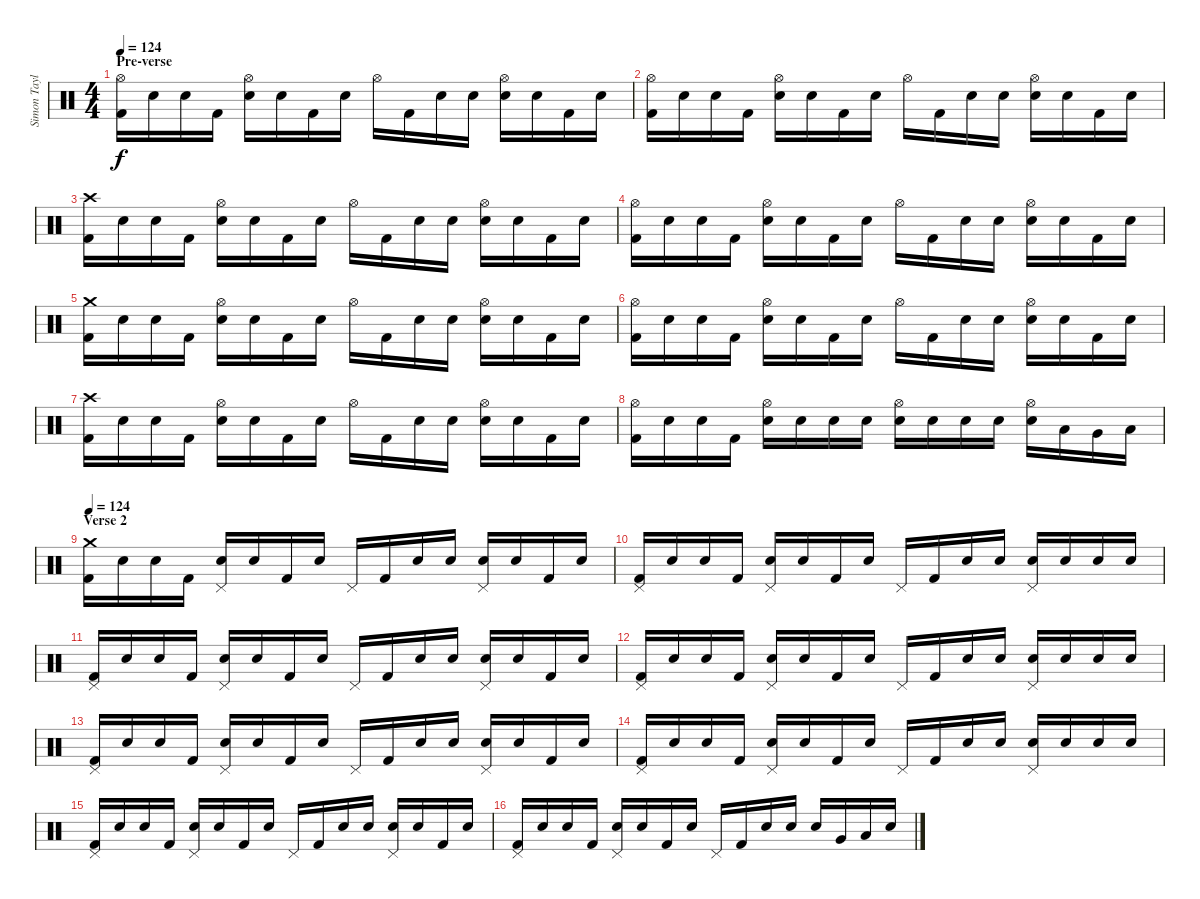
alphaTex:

\track ("Simon Taylor - Drums" "Simon Tayl") {instrument percussion}
\staff {score}
\articulation defaults
\ts (4 4)
\section ("" "Pre-verse")
\tempo 124
\clef neutral
\ks c
("Hi-Hat (open)" "Kick (hit) 2").16{dy f volume 16 balance 8} "Snare (hit)".16 "Snare (hit)".16 "Kick (hit) 2".16 ("Hi-Hat (open)" "Electric Snare (hit)").16 "Snare (hit)".16 "Kick (hit) 2".16 "Snare (hit)".16 "Hi-Hat (open)".16 "Kick (hit) 2".16 "Snare (hit)".16 "Snare (hit)".16 ("Hi-Hat (open)" "Electric Snare (hit)").16 "Snare (hit)".16 "Kick (hit) 2".16 "Snare (hit)".16 |
("Hi-Hat (open)" "Kick (hit) 2").16 "Snare (hit)".16 "Snare (hit)".16 "Kick (hit) 2".16 ("Hi-Hat (open)" "Electric Snare (hit)").16 "Snare (hit)".16 "Kick (hit) 2".16 "Snare (hit)".16 "Hi-Hat (open)".16 "Kick (hit) 2".16 "Snare (hit)".16 "Snare (hit)".16 ("Hi-Hat (open)" "Electric Snare (hit)").16 "Snare (hit)".16 "Kick (hit) 2".16 "Snare (hit)".16 |
("Crash high (hit)" "Kick (hit) 2").16 "Snare (hit)".16 "Snare (hit)".16 "Kick (hit) 2".16 ("Hi-Hat (open)" "Electric Snare (hit)").16 "Snare (hit)".16 "Kick (hit) 2".16 "Snare (hit)".16 "Hi-Hat (open)".16 "Kick (hit) 2".16 "Snare (hit)".16 "Snare (hit)".16 ("Hi-Hat (open)" "Electric Snare (hit)").16 "Snare (hit)".16 "Kick (hit) 2".16 "Snare (hit)".16 |
("Hi-Hat (open)" "Kick (hit) 2").16 "Snare (hit)".16 "Snare (hit)".16 "Kick (hit) 2".16 ("Hi-Hat (open)" "Electric Snare (hit)").16 "Snare (hit)".16 "Kick (hit) 2".16 "Snare (hit)".16 "Hi-Hat (open)".16 "Kick (hit) 2".16 "Snare (hit)".16 "Snare (hit)".16 ("Hi-Hat (open)" "Electric Snare (hit)").16 "Snare (hit)".16 "Kick (hit) 2".16 "Snare (hit)".16 |
("Crash medium (hit)" "Kick (hit) 2").16 "Snare (hit)".16 "Snare (hit)".16 "Kick (hit) 2".16 ("Hi-Hat (open)" "Electric Snare (hit)").16 "Snare (hit)".16 "Kick (hit) 2".16 "Snare (hit)".16 "Hi-Hat (open)".16 "Kick (hit) 2".16 "Snare (hit)".16 "Snare (hit)".16 ("Hi-Hat (open)" "Electric Snare (hit)").16 "Snare (hit)".16 "Kick (hit) 2".16 "Snare (hit)".16 |
("Hi-Hat (open)" "Kick (hit) 2").16 "Snare (hit)".16 "Snare (hit)".16 "Kick (hit) 2".16 ("Hi-Hat (open)" "Electric Snare (hit)").16 "Snare (hit)".16 "Kick (hit) 2".16 "Snare (hit)".16 "Hi-Hat (open)".16 "Kick (hit) 2".16 "Snare (hit)".16 "Snare (hit)".16 ("Hi-Hat (open)" "Electric Snare (hit)").16 "Snare (hit)".16 "Kick (hit) 2".16 "Snare (hit)".16 |
("Crash high (hit)" "Kick (hit) 2").16 "Snare (hit)".16 "Snare (hit)".16 "Kick (hit) 2".16 ("Hi-Hat (open)" "Electric Snare (hit)").16 "Snare (hit)".16 "Kick (hit) 2".16 "Snare (hit)".16 "Hi-Hat (open)".16 "Kick (hit) 2".16 "Snare (hit)".16 "Snare (hit)".16 ("Hi-Hat (open)" "Electric Snare (hit)").16 "Snare (hit)".16 "Kick (hit) 2".16 "Snare (hit)".16 |
("Hi-Hat (open)" "Kick (hit) 2").16 "Snare (hit)".16 "Snare (hit)".16 "Kick (hit) 2".16 ("Hi-Hat (open)" "Electric Snare (hit)").16 "Snare (hit)".16 "Snare (hit)".16 "Snare (hit)".16 ("Hi-Hat (open)" "Electric Snare (hit)").16 "Snare (hit)".16 "Electric Snare (hit)".16 "Snare (hit)".16 ("Hi-Hat (open)" "Electric Snare (hit)").16 "Low Tom (hit)".16 "Very Low Tom (hit)".16 "Low Floor Tom (hit)".16 |
\section ("" "Verse 2")
\tempo 124
("Crash medium (hit)" "Kick (hit) 2").16{volume 16 balance 8} "Snare (hit)".16 "Snare (hit)".16 "Kick (hit) 2".16 ("Pedal Hi-Hat (hit)" "Electric Snare (hit)").16 "Snare (hit)".16 "Kick (hit) 2".16 "Snare (hit)".16 "Pedal Hi-Hat (hit)".16 "Kick (hit) 2".16 "Snare (hit)".16 "Snare (hit)".16 ("Pedal Hi-Hat (hit)" "Electric Snare (hit)").16 "Snare (hit)".16 "Kick (hit) 2".16 "Snare (hit)".16 |
("Pedal Hi-Hat (hit)" "Kick (hit) 2").16 "Snare (hit)".16 "Snare (hit)".16 "Kick (hit) 2".16 ("Pedal Hi-Hat (hit)" "Electric Snare (hit)").16 "Snare (hit)".16 "Kick (hit) 2".16 "Snare (hit)".16 "Pedal Hi-Hat (hit)".16 "Kick (hit) 2".16 "Snare (hit)".16 "Snare (hit)".16 ("Pedal Hi-Hat (hit)" "Electric Snare (hit)").16 "Electric Snare (hit)".16 "Electric Snare (hit)".16 "Snare (hit)".16 |
("Pedal Hi-Hat (hit)" "Kick (hit) 2").16 "Snare (hit)".16 "Snare (hit)".16 "Kick (hit) 2".16 ("Pedal Hi-Hat (hit)" "Electric Snare (hit)").16 "Snare (hit)".16 "Kick (hit) 2".16 "Snare (hit)".16 "Pedal Hi-Hat (hit)".16 "Kick (hit) 2".16 "Snare (hit)".16 "Snare (hit)".16 ("Pedal Hi-Hat (hit)" "Electric Snare (hit)").16 "Snare (hit)".16 "Kick (hit) 2".16 "Snare (hit)".16 |
("Pedal Hi-Hat (hit)" "Kick (hit) 2").16 "Snare (hit)".16 "Snare (hit)".16 "Kick (hit) 2".16 ("Pedal Hi-Hat (hit)" "Electric Snare (hit)").16 "Snare (hit)".16 "Kick (hit) 2".16 "Snare (hit)".16 "Pedal Hi-Hat (hit)".16 "Kick (hit) 2".16 "Snare (hit)".16 "Snare (hit)".16 ("Pedal Hi-Hat (hit)" "Electric Snare (hit)").16 "Electric Snare (hit)".16 "Electric Snare (hit)".16 "Snare (hit)".16 |
("Pedal Hi-Hat (hit)" "Kick (hit) 2").16 "Snare (hit)".16 "Snare (hit)".16 "Kick (hit) 2".16 ("Pedal Hi-Hat (hit)" "Electric Snare (hit)").16 "Snare (hit)".16 "Kick (hit) 2".16 "Snare (hit)".16 "Pedal Hi-Hat (hit)".16 "Kick (hit) 2".16 "Snare (hit)".16 "Snare (hit)".16 ("Pedal Hi-Hat (hit)" "Electric Snare (hit)").16 "Snare (hit)".16 "Kick (hit) 2".16 "Snare (hit)".16 |
("Pedal Hi-Hat (hit)" "Kick (hit) 2").16 "Snare (hit)".16 "Snare (hit)".16 "Kick (hit) 2".16 ("Pedal Hi-Hat (hit)" "Electric Snare (hit)").16 "Snare (hit)".16 "Kick (hit) 2".16 "Snare (hit)".16 "Pedal Hi-Hat (hit)".16 "Kick (hit) 2".16 "Snare (hit)".16 "Snare (hit)".16 ("Pedal Hi-Hat (hit)" "Electric Snare (hit)").16 "Electric Snare (hit)".16 "Electric Snare (hit)".16 "Snare (hit)".16 |
("Pedal Hi-Hat (hit)" "Kick (hit) 2").16 "Snare (hit)".16 "Snare (hit)".16 "Kick (hit) 2".16 ("Pedal Hi-Hat (hit)" "Electric Snare (hit)").16 "Snare (hit)".16 "Kick (hit) 2".16 "Snare (hit)".16 "Pedal Hi-Hat (hit)".16 "Kick (hit) 2".16 "Snare (hit)".16 "Snare (hit)".16 ("Pedal Hi-Hat (hit)" "Electric Snare (hit)").16 "Snare (hit)".16 "Kick (hit) 2".16 "Snare (hit)".16 |
("Pedal Hi-Hat (hit)" "Kick (hit) 2").16 "Snare (hit)".16 "Snare (hit)".16 "Kick (hit) 2".16 ("Pedal Hi-Hat (hit)" "Electric Snare (hit)").16 "Snare (hit)".16 "Kick (hit) 2".16 "Snare (hit)".16 "Pedal Hi-Hat (hit)".16 "Kick (hit) 2".16 "Snare (hit)".16 "Snare (hit)".16 "Electric Snare (hit)".16 "Very Low Tom (hit)".16 "Low Floor Tom (hit)".16 "Snare (hit)".16
